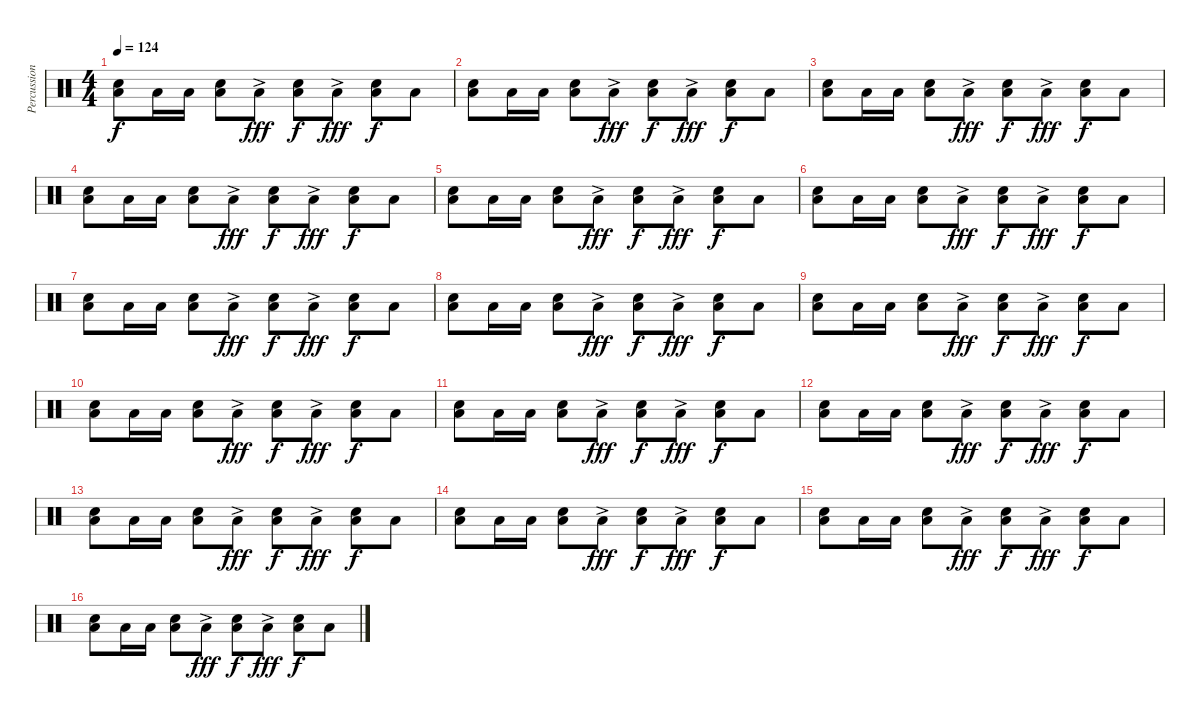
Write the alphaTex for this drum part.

\track ("Percussion" "Percussion") {instrument percussion}
\staff {score}
\articulation defaults
\ts (4 4)
\tempo 124
\clef neutral
\ks c
("Low Floor Tom (hit)" "Snare (hit) 2").8{dy f} "Low Floor Tom (hit)".16 "Low Floor Tom (hit)".16 ("Low Floor Tom (hit)" "Snare (hit) 2").8 "Low Floor Tom (hit)"{ac}.8{dy fff} ("Low Floor Tom (hit)" "Snare (hit) 2").8{dy f} "Low Floor Tom (hit)"{ac}.8{dy fff} ("Low Floor Tom (hit)" "Snare (hit) 2").8{dy f} "Low Floor Tom (hit)".8 |
("Low Floor Tom (hit)" "Snare (hit) 2").8 "Low Floor Tom (hit)".16 "Low Floor Tom (hit)".16 ("Low Floor Tom (hit)" "Snare (hit) 2").8 "Low Floor Tom (hit)"{ac}.8{dy fff} ("Low Floor Tom (hit)" "Snare (hit) 2").8{dy f} "Low Floor Tom (hit)"{ac}.8{dy fff} ("Low Floor Tom (hit)" "Snare (hit) 2").8{dy f} "Low Floor Tom (hit)".8 |
("Low Floor Tom (hit)" "Snare (hit) 2").8 "Low Floor Tom (hit)".16 "Low Floor Tom (hit)".16 ("Low Floor Tom (hit)" "Snare (hit) 2").8 "Low Floor Tom (hit)"{ac}.8{dy fff} ("Low Floor Tom (hit)" "Snare (hit) 2").8{dy f} "Low Floor Tom (hit)"{ac}.8{dy fff} ("Low Floor Tom (hit)" "Snare (hit) 2").8{dy f} "Low Floor Tom (hit)".8 |
("Low Floor Tom (hit)" "Snare (hit) 2").8 "Low Floor Tom (hit)".16 "Low Floor Tom (hit)".16 ("Low Floor Tom (hit)" "Snare (hit) 2").8 "Low Floor Tom (hit)"{ac}.8{dy fff} ("Low Floor Tom (hit)" "Snare (hit) 2").8{dy f} "Low Floor Tom (hit)"{ac}.8{dy fff} ("Low Floor Tom (hit)" "Snare (hit) 2").8{dy f} "Low Floor Tom (hit)".8 |
("Low Floor Tom (hit)" "Snare (hit) 2").8 "Low Floor Tom (hit)".16 "Low Floor Tom (hit)".16 ("Low Floor Tom (hit)" "Snare (hit) 2").8 "Low Floor Tom (hit)"{ac}.8{dy fff} ("Low Floor Tom (hit)" "Snare (hit) 2").8{dy f} "Low Floor Tom (hit)"{ac}.8{dy fff} ("Low Floor Tom (hit)" "Snare (hit) 2").8{dy f} "Low Floor Tom (hit)".8 |
("Low Floor Tom (hit)" "Snare (hit) 2").8 "Low Floor Tom (hit)".16 "Low Floor Tom (hit)".16 ("Low Floor Tom (hit)" "Snare (hit) 2").8 "Low Floor Tom (hit)"{ac}.8{dy fff} ("Low Floor Tom (hit)" "Snare (hit) 2").8{dy f} "Low Floor Tom (hit)"{ac}.8{dy fff} ("Low Floor Tom (hit)" "Snare (hit) 2").8{dy f} "Low Floor Tom (hit)".8 |
("Low Floor Tom (hit)" "Snare (hit) 2").8 "Low Floor Tom (hit)".16 "Low Floor Tom (hit)".16 ("Low Floor Tom (hit)" "Snare (hit) 2").8 "Low Floor Tom (hit)"{ac}.8{dy fff} ("Low Floor Tom (hit)" "Snare (hit) 2").8{dy f} "Low Floor Tom (hit)"{ac}.8{dy fff} ("Low Floor Tom (hit)" "Snare (hit) 2").8{dy f} "Low Floor Tom (hit)".8 |
("Low Floor Tom (hit)" "Snare (hit) 2").8 "Low Floor Tom (hit)".16 "Low Floor Tom (hit)".16 ("Low Floor Tom (hit)" "Snare (hit) 2").8 "Low Floor Tom (hit)"{ac}.8{dy fff} ("Low Floor Tom (hit)" "Snare (hit) 2").8{dy f} "Low Floor Tom (hit)"{ac}.8{dy fff} ("Low Floor Tom (hit)" "Snare (hit) 2").8{dy f} "Low Floor Tom (hit)".8 |
("Low Floor Tom (hit)" "Snare (hit) 2").8 "Low Floor Tom (hit)".16 "Low Floor Tom (hit)".16 ("Low Floor Tom (hit)" "Snare (hit) 2").8 "Low Floor Tom (hit)"{ac}.8{dy fff} ("Low Floor Tom (hit)" "Snare (hit) 2").8{dy f} "Low Floor Tom (hit)"{ac}.8{dy fff} ("Low Floor Tom (hit)" "Snare (hit) 2").8{dy f} "Low Floor Tom (hit)".8 |
("Low Floor Tom (hit)" "Snare (hit) 2").8 "Low Floor Tom (hit)".16 "Low Floor Tom (hit)".16 ("Low Floor Tom (hit)" "Snare (hit) 2").8 "Low Floor Tom (hit)"{ac}.8{dy fff} ("Low Floor Tom (hit)" "Snare (hit) 2").8{dy f} "Low Floor Tom (hit)"{ac}.8{dy fff} ("Low Floor Tom (hit)" "Snare (hit) 2").8{dy f} "Low Floor Tom (hit)".8 |
("Low Floor Tom (hit)" "Snare (hit) 2").8 "Low Floor Tom (hit)".16 "Low Floor Tom (hit)".16 ("Low Floor Tom (hit)" "Snare (hit) 2").8 "Low Floor Tom (hit)"{ac}.8{dy fff} ("Low Floor Tom (hit)" "Snare (hit) 2").8{dy f} "Low Floor Tom (hit)"{ac}.8{dy fff} ("Low Floor Tom (hit)" "Snare (hit) 2").8{dy f} "Low Floor Tom (hit)".8 |
("Low Floor Tom (hit)" "Snare (hit) 2").8 "Low Floor Tom (hit)".16 "Low Floor Tom (hit)".16 ("Low Floor Tom (hit)" "Snare (hit) 2").8 "Low Floor Tom (hit)"{ac}.8{dy fff} ("Low Floor Tom (hit)" "Snare (hit) 2").8{dy f} "Low Floor Tom (hit)"{ac}.8{dy fff} ("Low Floor Tom (hit)" "Snare (hit) 2").8{dy f} "Low Floor Tom (hit)".8 |
("Low Floor Tom (hit)" "Snare (hit) 2").8 "Low Floor Tom (hit)".16 "Low Floor Tom (hit)".16 ("Low Floor Tom (hit)" "Snare (hit) 2").8 "Low Floor Tom (hit)"{ac}.8{dy fff} ("Low Floor Tom (hit)" "Snare (hit) 2").8{dy f} "Low Floor Tom (hit)"{ac}.8{dy fff} ("Low Floor Tom (hit)" "Snare (hit) 2").8{dy f} "Low Floor Tom (hit)".8 |
("Low Floor Tom (hit)" "Snare (hit) 2").8 "Low Floor Tom (hit)".16 "Low Floor Tom (hit)".16 ("Low Floor Tom (hit)" "Snare (hit) 2").8 "Low Floor Tom (hit)"{ac}.8{dy fff} ("Low Floor Tom (hit)" "Snare (hit) 2").8{dy f} "Low Floor Tom (hit)"{ac}.8{dy fff} ("Low Floor Tom (hit)" "Snare (hit) 2").8{dy f} "Low Floor Tom (hit)".8 |
("Low Floor Tom (hit)" "Snare (hit) 2").8 "Low Floor Tom (hit)".16 "Low Floor Tom (hit)".16 ("Low Floor Tom (hit)" "Snare (hit) 2").8 "Low Floor Tom (hit)"{ac}.8{dy fff} ("Low Floor Tom (hit)" "Snare (hit) 2").8{dy f} "Low Floor Tom (hit)"{ac}.8{dy fff} ("Low Floor Tom (hit)" "Snare (hit) 2").8{dy f} "Low Floor Tom (hit)".8 |
("Low Floor Tom (hit)" "Snare (hit) 2").8 "Low Floor Tom (hit)".16 "Low Floor Tom (hit)".16 ("Low Floor Tom (hit)" "Snare (hit) 2").8 "Low Floor Tom (hit)"{ac}.8{dy fff} ("Low Floor Tom (hit)" "Snare (hit) 2").8{dy f} "Low Floor Tom (hit)"{ac}.8{dy fff} ("Low Floor Tom (hit)" "Snare (hit) 2").8{dy f} "Low Floor Tom (hit)".8
